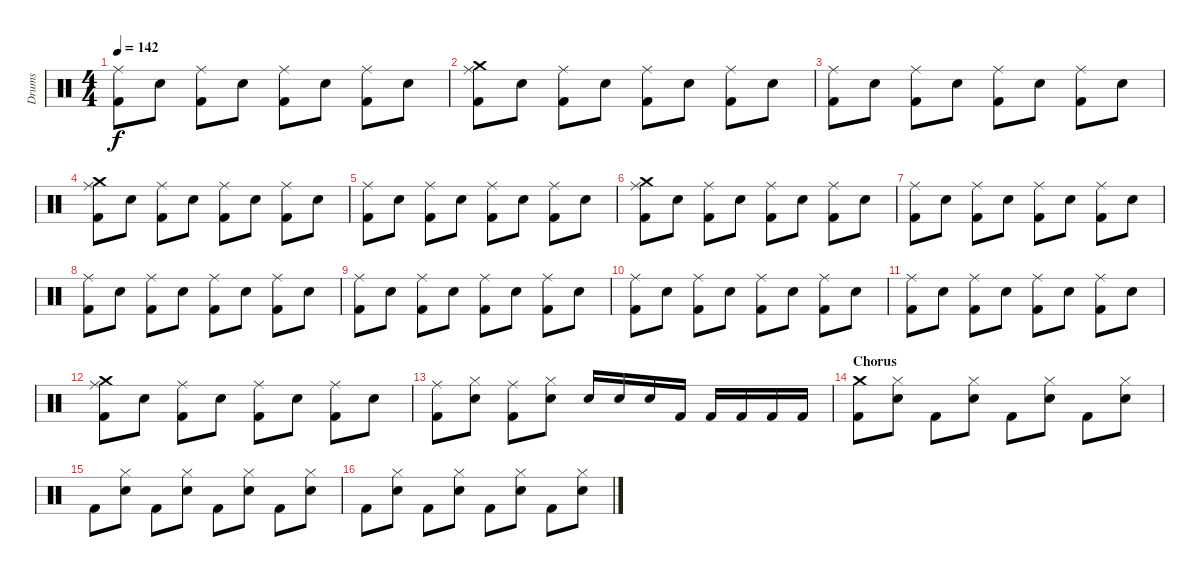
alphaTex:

\track ("Drums" "Drums") {instrument percussion}
\staff {score}
\articulation defaults
\ts (4 4)
\tempo 142
\clef neutral
\ks c
("Kick (hit) 2" "Ride (middle)").8{dy f} "Snare (hit) 2".8 ("Kick (hit) 2" "Ride (middle)").8 "Snare (hit) 2".8 ("Kick (hit) 2" "Ride (middle)").8 "Snare (hit) 2".8 ("Kick (hit) 2" "Ride (middle)").8 "Snare (hit) 2".8 |
("Kick (hit) 2" "Ride (middle)" "Crash medium (hit)").8 "Snare (hit) 2".8 ("Kick (hit) 2" "Ride (middle)").8 "Snare (hit) 2".8 ("Kick (hit) 2" "Ride (middle)").8 "Snare (hit) 2".8 ("Kick (hit) 2" "Ride (middle)").8 "Snare (hit) 2".8 |
("Kick (hit) 2" "Ride (middle)").8 "Snare (hit) 2".8 ("Kick (hit) 2" "Ride (middle)").8 "Snare (hit) 2".8 ("Kick (hit) 2" "Ride (middle)").8 "Snare (hit) 2".8 ("Kick (hit) 2" "Ride (middle)").8 "Snare (hit) 2".8 |
("Kick (hit) 2" "Ride (middle)" "Crash medium (hit)").8 "Snare (hit) 2".8 ("Kick (hit) 2" "Ride (middle)").8 "Snare (hit) 2".8 ("Kick (hit) 2" "Ride (middle)").8 "Snare (hit) 2".8 ("Kick (hit) 2" "Ride (middle)").8 "Snare (hit) 2".8 |
("Kick (hit) 2" "Ride (middle)").8 "Snare (hit) 2".8 ("Kick (hit) 2" "Ride (middle)").8 "Snare (hit) 2".8 ("Kick (hit) 2" "Ride (middle)").8 "Snare (hit) 2".8 ("Kick (hit) 2" "Ride (middle)").8 "Snare (hit) 2".8 |
("Kick (hit) 2" "Ride (middle)" "Crash medium (hit)").8 "Snare (hit) 2".8 ("Kick (hit) 2" "Ride (middle)").8 "Snare (hit) 2".8 ("Kick (hit) 2" "Ride (middle)").8 "Snare (hit) 2".8 ("Kick (hit) 2" "Ride (middle)").8 "Snare (hit) 2".8 |
("Kick (hit) 2" "Ride (middle)").8 "Snare (hit) 2".8 ("Kick (hit) 2" "Ride (middle)").8 "Snare (hit) 2".8 ("Kick (hit) 2" "Ride (middle)").8 "Snare (hit) 2".8 ("Kick (hit) 2" "Ride (middle)").8 "Snare (hit) 2".8 |
("Kick (hit) 2" "Ride (middle)").8 "Snare (hit) 2".8 ("Kick (hit) 2" "Ride (middle)").8 "Snare (hit) 2".8 ("Kick (hit) 2" "Ride (middle)").8 "Snare (hit) 2".8 ("Kick (hit) 2" "Ride (middle)").8 "Snare (hit) 2".8 |
("Kick (hit) 2" "Ride (middle)").8 "Snare (hit) 2".8 ("Kick (hit) 2" "Ride (middle)").8 "Snare (hit) 2".8 ("Kick (hit) 2" "Ride (middle)").8 "Snare (hit) 2".8 ("Kick (hit) 2" "Ride (middle)").8 "Snare (hit) 2".8 |
("Kick (hit) 2" "Ride (middle)").8 "Snare (hit) 2".8 ("Kick (hit) 2" "Ride (middle)").8 "Snare (hit) 2".8 ("Kick (hit) 2" "Ride (middle)").8 "Snare (hit) 2".8 ("Kick (hit) 2" "Ride (middle)").8 "Snare (hit) 2".8 |
("Kick (hit) 2" "Ride (middle)").8 "Snare (hit) 2".8 ("Kick (hit) 2" "Ride (middle)").8 "Snare (hit) 2".8 ("Kick (hit) 2" "Ride (middle)").8 "Snare (hit) 2".8 ("Kick (hit) 2" "Ride (middle)").8 "Snare (hit) 2".8 |
("Kick (hit) 2" "Ride (middle)" "Crash medium (hit)").8 "Snare (hit) 2".8 ("Kick (hit) 2" "Ride (middle)").8 "Snare (hit) 2".8 ("Kick (hit) 2" "Ride (middle)").8 "Snare (hit) 2".8 ("Kick (hit) 2" "Ride (middle)").8 "Snare (hit) 2".8 |
("Kick (hit) 2" "Ride (middle)").8 ("Snare (hit) 2" "Hi-Hat (closed)").8 ("Kick (hit) 2" "Ride (middle)").8 ("Snare (hit) 2" "Hi-Hat (closed)").8 "Snare (hit) 2".16 "Snare (hit) 2".16 "Snare (hit) 2".16 "Kick (hit) 2".16 "Kick (hit) 2".16 "Kick (hit) 2".16 "Kick (hit) 2".16 "Kick (hit) 2".16 |
\section ("" "Chorus")
("Kick (hit) 2" "Crash medium (hit)").8 ("Snare (hit) 2" "Hi-Hat (closed)").8 "Kick (hit) 2".8 ("Snare (hit) 2" "Hi-Hat (closed)").8 "Kick (hit) 2".8 ("Snare (hit) 2" "Hi-Hat (closed)").8 "Kick (hit) 2".8 ("Snare (hit) 2" "Hi-Hat (closed)").8 |
"Kick (hit) 2".8 ("Snare (hit) 2" "Hi-Hat (closed)").8 "Kick (hit) 2".8 ("Snare (hit) 2" "Hi-Hat (closed)").8 "Kick (hit) 2".8 ("Snare (hit) 2" "Hi-Hat (closed)").8 "Kick (hit) 2".8 ("Snare (hit) 2" "Hi-Hat (closed)").8 |
"Kick (hit) 2".8 ("Snare (hit) 2" "Hi-Hat (closed)").8 "Kick (hit) 2".8 ("Snare (hit) 2" "Hi-Hat (closed)").8 "Kick (hit) 2".8 ("Snare (hit) 2" "Hi-Hat (closed)").8 "Kick (hit) 2".8 ("Snare (hit) 2" "Hi-Hat (closed)").8
